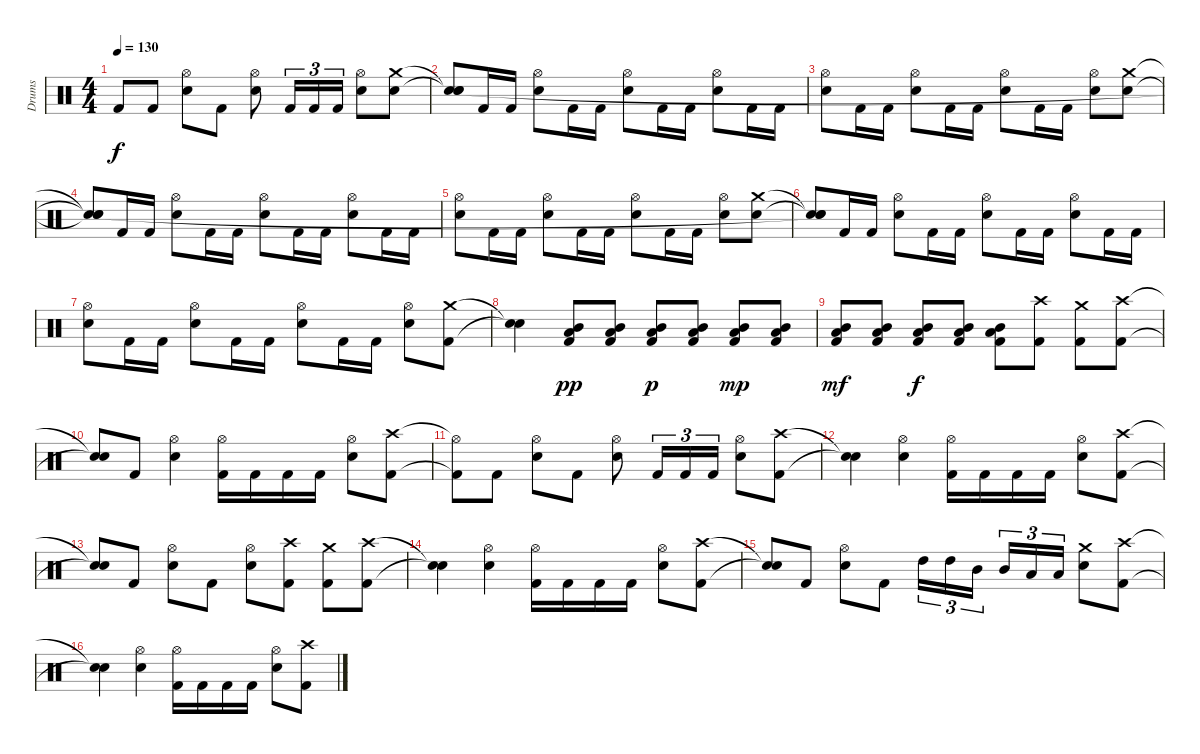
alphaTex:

\track ("Drums" "Drums") {instrument percussion}
\staff {score}
\articulation defaults
\ts (4 4)
\tempo 130
\clef neutral
\ks c "Kick (hit) 2".8{dy f} "Kick (hit) 2".8
("Hi-Hat (open)" "Snare (hit) 2").8 "Kick (hit) 2".8 ("Hi-Hat (open)" "Snare (hit) 2").8 "Kick (hit) 2".16{tu (3 2)} "Kick (hit) 2".16{tu (3 2)} "Kick (hit) 2".16{tu (3 2)} ("Hi-Hat (open)" "Snare (hit) 2").8 ("Crash medium (hit)" "Snare (hit) 2").8 |
("Snare (hit)"{t} "Snare (hit)"{t} "Snare (hit)").8 "Kick (hit) 2".16 "Kick (hit) 2".16 ("Hi-Hat (open)" "Snare (hit) 2").8 "Kick (hit) 2".16 "Kick (hit) 2".16 ("Hi-Hat (open)" "Snare (hit) 2").8 "Kick (hit) 2".16 "Kick (hit) 2".16 ("Hi-Hat (open)" "Snare (hit) 2").8 "Kick (hit) 2".16 "Kick (hit) 2".16 |
("Hi-Hat (open)" "Snare (hit) 2").8 "Kick (hit) 2".16 "Kick (hit) 2".16 ("Hi-Hat (open)" "Snare (hit) 2").8 "Kick (hit) 2".16 "Kick (hit) 2".16 ("Hi-Hat (open)" "Snare (hit) 2").8 "Kick (hit) 2".16 "Kick (hit) 2".16 ("Hi-Hat (open)" "Snare (hit) 2").8 ("Crash medium (hit)" "Snare (hit) 2").8 |
("Snare (hit)"{t} "Snare (hit)"{t} "Snare (hit)"{t}).8 "Kick (hit) 2".16 "Kick (hit) 2".16 ("Hi-Hat (open)" "Snare (hit) 2").8 "Kick (hit) 2".16 "Kick (hit) 2".16 ("Hi-Hat (open)" "Snare (hit) 2").8 "Kick (hit) 2".16 "Kick (hit) 2".16 ("Hi-Hat (open)" "Snare (hit) 2").8 "Kick (hit) 2".16 "Kick (hit) 2".16 |
("Hi-Hat (open)" "Snare (hit) 2").8 "Kick (hit) 2".16 "Kick (hit) 2".16 ("Hi-Hat (open)" "Snare (hit) 2").8 "Kick (hit) 2".16 "Kick (hit) 2".16 ("Hi-Hat (open)" "Snare (hit) 2").8 "Kick (hit) 2".16 "Kick (hit) 2".16 ("Hi-Hat (open)" "Snare (hit) 2").8 ("Crash medium (hit)" "Snare (hit) 2").8 |
("Snare (hit)"{t} "Snare (hit)"{t} "Snare (hit)"{t}).8 "Kick (hit) 2".16 "Kick (hit) 2".16 ("Hi-Hat (open)" "Snare (hit) 2").8 "Kick (hit) 2".16 "Kick (hit) 2".16 ("Hi-Hat (open)" "Snare (hit) 2").8 "Kick (hit) 2".16 "Kick (hit) 2".16 ("Hi-Hat (open)" "Snare (hit) 2").8 "Kick (hit) 2".16 "Kick (hit) 2".16 |
("Hi-Hat (open)" "Snare (hit) 2").8 "Kick (hit) 2".16 "Kick (hit) 2".16 ("Hi-Hat (open)" "Snare (hit) 2").8 "Kick (hit) 2".16 "Kick (hit) 2".16 ("Hi-Hat (open)" "Snare (hit) 2").8 "Kick (hit) 2".16 "Kick (hit) 2".16 ("Hi-Hat (open)" "Snare (hit) 2").8 ("Crash medium (hit)" "Kick (hit) 2").8 |
("Snare (hit)"{t} "Snare (hit)"{t}).4 ("Mid Tom (hit)" "Low Tom (hit)" "Kick (hit) 2").8{dy pp} ("Mid Tom (hit)" "Low Tom (hit)" "Kick (hit) 2").8 ("Mid Tom (hit)" "Low Tom (hit)" "Kick (hit) 2").8{dy p} ("Mid Tom (hit)" "Low Tom (hit)" "Kick (hit) 2").8 ("Mid Tom (hit)" "Low Tom (hit)" "Kick (hit) 2").8{dy mp} ("Mid Tom (hit)" "Low Tom (hit)" "Kick (hit) 2").8 |
("Mid Tom (hit)" "Low Tom (hit)" "Kick (hit) 2").8{dy mf} ("Mid Tom (hit)" "Low Tom (hit)" "Kick (hit) 2").8 ("Mid Tom (hit)" "Low Tom (hit)" "Kick (hit) 2").8{dy f} ("Mid Tom (hit)" "Low Tom (hit)" "Kick (hit) 2").8 ("Mid Tom (hit)" "Low Tom (hit)" "Kick (hit) 2").8 ("Crash high (hit)" "Kick (hit) 2").8 ("Crash medium (hit)" "Kick (hit) 2").8 ("Crash high (hit)" "Kick (hit) 2").8 |
("Snare (hit)"{t} "Snare (hit)"{t}).8 "Kick (hit) 2".8 ("Snare (hit) 2" "Hi-Hat (open)").4 ("Kick (hit) 2" "Hi-Hat (open)").16 "Kick (hit) 2".16 "Kick (hit) 2".16 "Kick (hit) 2".16 ("Snare (hit) 2" "Hi-Hat (open)").8 ("Kick (hit) 2" "Crash high (hit)").8 |
("Kick (hit) 2"{t} "Hi-Hat (open)"{t}).8 "Kick (hit) 2".8 ("Snare (hit) 2" "Hi-Hat (open)").8 "Kick (hit) 2".8 ("Snare (hit) 2" "Hi-Hat (open)").8 "Kick (hit) 2".16{tu (3 2)} "Kick (hit) 2".16{tu (3 2)} "Kick (hit) 2".16{tu (3 2)} ("Snare (hit) 2" "Hi-Hat (open)").8 ("Kick (hit) 2" "Crash high (hit)").8 |
("Snare (hit)"{t} "Snare (hit)"{t}).4 ("Snare (hit) 2" "Hi-Hat (open)").4 ("Kick (hit) 2" "Hi-Hat (open)").16 "Kick (hit) 2".16 "Kick (hit) 2".16 "Kick (hit) 2".16 ("Snare (hit) 2" "Hi-Hat (open)").8 ("Kick (hit) 2" "Crash high (hit)").8 |
("Snare (hit)"{t} "Snare (hit)"{t}).8 "Kick (hit) 2".8 ("Snare (hit) 2" "Hi-Hat (open)").8 "Kick (hit) 2".8 ("Snare (hit) 2" "Hi-Hat (open)").8 ("Crash high (hit)" "Kick (hit) 2").8 ("Crash medium (hit)" "Kick (hit) 2").8 ("Crash high (hit)" "Kick (hit) 2").8 |
("Snare (hit)"{t} "Snare (hit)"{t}).4 ("Snare (hit) 2" "Hi-Hat (open)").4 ("Kick (hit) 2" "Hi-Hat (open)").16 "Kick (hit) 2".16 "Kick (hit) 2".16 "Kick (hit) 2".16 ("Snare (hit) 2" "Hi-Hat (open)").8 ("Kick (hit) 2" "Crash high (hit)").8 |
("Snare (hit)"{t} "Snare (hit)"{t}).8 "Kick (hit) 2".8 ("Snare (hit) 2" "Hi-Hat (open)").8 "Kick (hit) 2".8 "High Tom (hit)".16{tu (3 2)} "High Tom (hit)".16{tu (3 2)} "Mid Tom (hit)".16{tu (3 2) beam splitsecondary} "Mid Tom (hit)".16{tu (3 2)} "Low Tom (hit)".16{tu (3 2)} "Low Tom (hit)".16{tu (3 2)} ("Snare (hit) 2" "Crash medium (hit)").8 ("Kick (hit) 2" "Crash high (hit)").8 |
("Snare (hit)"{t} "Snare (hit)"{t}).4 ("Snare (hit) 2" "Hi-Hat (open)").4 ("Kick (hit) 2" "Hi-Hat (open)").16 "Kick (hit) 2".16 "Kick (hit) 2".16 "Kick (hit) 2".16 ("Snare (hit) 2" "Hi-Hat (open)").8 ("Kick (hit) 2" "Crash high (hit)").8
